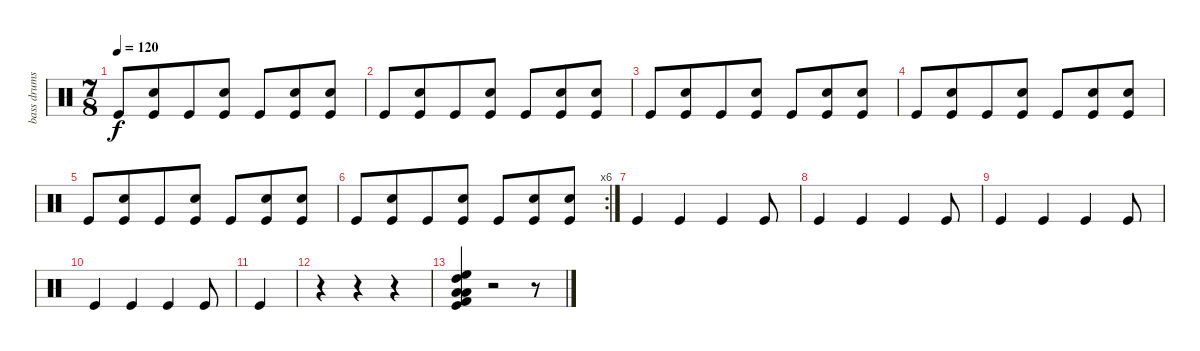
\track ("bass drums" "bass drums") {instrument percussion}
\staff {score}
\articulation defaults
\ts (7 8)
\tempo 120
\clef neutral
\ks c "Kick (hit)".8{dy f}
("Electric Snare (hit)" "Kick (hit)").8 "Kick (hit)".8 ("Electric Snare (hit)" "Kick (hit)").8 "Kick (hit)".8 ("Electric Snare (hit)" "Kick (hit)").8 ("Electric Snare (hit)" "Kick (hit)").8 |
"Kick (hit)".8 ("Electric Snare (hit)" "Kick (hit)").8 "Kick (hit)".8 ("Electric Snare (hit)" "Kick (hit)").8 "Kick (hit)".8 ("Electric Snare (hit)" "Kick (hit)").8 ("Electric Snare (hit)" "Kick (hit)").8 |
"Kick (hit)".8 ("Electric Snare (hit)" "Kick (hit)").8 "Kick (hit)".8 ("Electric Snare (hit)" "Kick (hit)").8 "Kick (hit)".8 ("Electric Snare (hit)" "Kick (hit)").8 ("Electric Snare (hit)" "Kick (hit)").8 |
"Kick (hit)".8 ("Electric Snare (hit)" "Kick (hit)").8 "Kick (hit)".8 ("Electric Snare (hit)" "Kick (hit)").8 "Kick (hit)".8 ("Electric Snare (hit)" "Kick (hit)").8 ("Electric Snare (hit)" "Kick (hit)").8 |
"Kick (hit)".8 ("Electric Snare (hit)" "Kick (hit)").8 "Kick (hit)".8 ("Electric Snare (hit)" "Kick (hit)").8 "Kick (hit)".8 ("Electric Snare (hit)" "Kick (hit)").8 ("Electric Snare (hit)" "Kick (hit)").8 |
\rc 6 "Kick (hit)".8
("Electric Snare (hit)" "Kick (hit)").8 "Kick (hit)".8 ("Electric Snare (hit)" "Kick (hit)").8 "Kick (hit)".8 ("Electric Snare (hit)" "Kick (hit)").8 ("Electric Snare (hit)" "Kick (hit)").8 |
"Kick (hit)".4 "Kick (hit)".4 "Kick (hit)".4 "Kick (hit)".8 |
"Kick (hit)".4 "Kick (hit)".4 "Kick (hit)".4 "Kick (hit)".8 |
"Kick (hit)".4 "Kick (hit)".4 "Kick (hit)".4 "Kick (hit)".8 |
"Kick (hit)".4 "Kick (hit)".4 "Kick (hit)".4 "Kick (hit)".8 |
"Kick (hit)".4 |
r.4 r.4 r.4 |
("Low Floor Tom (hit)" "Low Tom (hit)" "Kick (hit) 2" "Kick (hit)" "High Floor Tom (hit)" "High Tom (hit)").4 r.2 r.8
